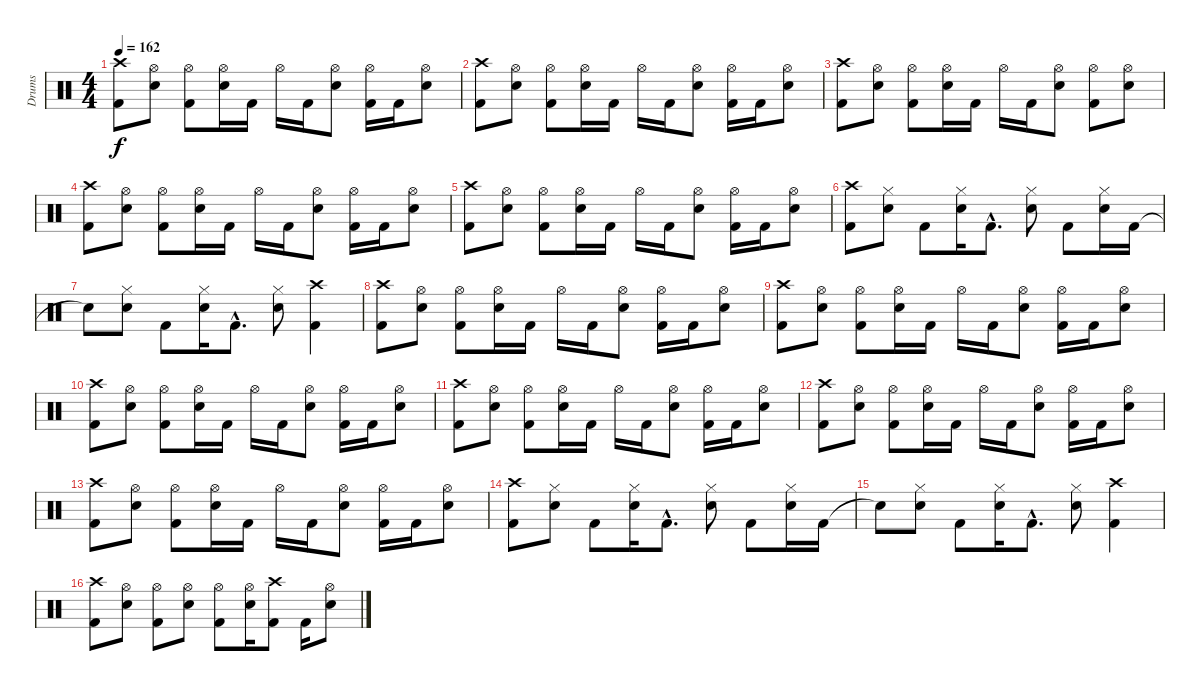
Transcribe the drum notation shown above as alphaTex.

\track ("Drums" "Drums") {instrument percussion}
\staff {score}
\articulation defaults
\ts (4 4)
\tempo 162
\clef neutral
\ks c
("Kick (hit) 2" "Crash high (hit)").8{dy f} ("Snare (hit) 2" "Hi-Hat (open)").8 ("Kick (hit) 2" "Hi-Hat (open)").8 ("Snare (hit) 2" "Hi-Hat (open)").16 "Kick (hit) 2".16 "Hi-Hat (open)".16 "Kick (hit) 2".16 ("Snare (hit) 2" "Hi-Hat (open)").8 ("Kick (hit) 2" "Hi-Hat (open)").16 "Kick (hit) 2".16 ("Snare (hit) 2" "Hi-Hat (open)").8 |
("Kick (hit) 2" "Crash high (hit)").8 ("Snare (hit) 2" "Hi-Hat (open)").8 ("Kick (hit) 2" "Hi-Hat (open)").8 ("Snare (hit) 2" "Hi-Hat (open)").16 "Kick (hit) 2".16 "Hi-Hat (open)".16 "Kick (hit) 2".16 ("Snare (hit) 2" "Hi-Hat (open)").8 ("Kick (hit) 2" "Hi-Hat (open)").16 "Kick (hit) 2".16 ("Snare (hit) 2" "Hi-Hat (open)").8 |
("Kick (hit) 2" "Crash high (hit)").8 ("Snare (hit) 2" "Hi-Hat (open)").8 ("Kick (hit) 2" "Hi-Hat (open)").8 ("Snare (hit) 2" "Hi-Hat (open)").16 "Kick (hit) 2".16 "Hi-Hat (open)".16 "Kick (hit) 2".16 ("Snare (hit) 2" "Hi-Hat (open)").8 ("Kick (hit) 2" "Hi-Hat (open)").8 ("Snare (hit) 2" "Hi-Hat (open)").8 |
("Kick (hit) 2" "Crash high (hit)").8 ("Snare (hit) 2" "Hi-Hat (open)").8 ("Kick (hit) 2" "Hi-Hat (open)").8 ("Snare (hit) 2" "Hi-Hat (open)").16 "Kick (hit) 2".16 "Hi-Hat (open)".16 "Kick (hit) 2".16 ("Snare (hit) 2" "Hi-Hat (open)").8 ("Kick (hit) 2" "Hi-Hat (open)").16 "Kick (hit) 2".16 ("Snare (hit) 2" "Hi-Hat (open)").8 |
("Kick (hit) 2" "Crash high (hit)").8 ("Snare (hit) 2" "Hi-Hat (open)").8 ("Kick (hit) 2" "Hi-Hat (open)").8 ("Snare (hit) 2" "Hi-Hat (open)").16 "Kick (hit) 2".16 "Hi-Hat (open)".16 "Kick (hit) 2".16 ("Snare (hit) 2" "Hi-Hat (open)").8 ("Kick (hit) 2" "Hi-Hat (open)").16 "Kick (hit) 2".16 ("Snare (hit) 2" "Hi-Hat (open)").8 |
("Kick (hit) 2" "Crash high (hit)").8 ("Snare (hit) 2" "Hi-Hat (closed)").8 "Kick (hit) 2".8 ("Snare (hit) 2" "Hi-Hat (closed)").16 "Kick (hit) 2"{hac}.8{d} ("Snare (hit) 2" "Hi-Hat (closed)").8 "Kick (hit) 2".8 ("Snare (hit) 2" "Hi-Hat (closed)").16 "Kick (hit) 2".16 |
"Snare (hit)"{t}.8 ("Snare (hit) 2" "Hi-Hat (closed)").8 "Kick (hit) 2".8 ("Snare (hit) 2" "Hi-Hat (closed)").16 "Kick (hit) 2"{hac}.8{d} ("Snare (hit) 2" "Hi-Hat (closed)").8 ("Kick (hit) 2" "Crash high (hit)").4 |
("Kick (hit) 2" "Crash high (hit)").8 ("Snare (hit) 2" "Hi-Hat (open)").8 ("Kick (hit) 2" "Hi-Hat (open)").8 ("Snare (hit) 2" "Hi-Hat (open)").16 "Kick (hit) 2".16 "Hi-Hat (open)".16 "Kick (hit) 2".16 ("Snare (hit) 2" "Hi-Hat (open)").8 ("Kick (hit) 2" "Hi-Hat (open)").16 "Kick (hit) 2".16 ("Snare (hit) 2" "Hi-Hat (open)").8 |
("Kick (hit) 2" "Crash high (hit)").8 ("Snare (hit) 2" "Hi-Hat (open)").8 ("Kick (hit) 2" "Hi-Hat (open)").8 ("Snare (hit) 2" "Hi-Hat (open)").16 "Kick (hit) 2".16 "Hi-Hat (open)".16 "Kick (hit) 2".16 ("Snare (hit) 2" "Hi-Hat (open)").8 ("Kick (hit) 2" "Hi-Hat (open)").16 "Kick (hit) 2".16 ("Snare (hit) 2" "Hi-Hat (open)").8 |
("Kick (hit) 2" "Crash high (hit)").8 ("Snare (hit) 2" "Hi-Hat (open)").8 ("Kick (hit) 2" "Hi-Hat (open)").8 ("Snare (hit) 2" "Hi-Hat (open)").16 "Kick (hit) 2".16 "Hi-Hat (open)".16 "Kick (hit) 2".16 ("Snare (hit) 2" "Hi-Hat (open)").8 ("Kick (hit) 2" "Hi-Hat (open)").16 "Kick (hit) 2".16 ("Snare (hit) 2" "Hi-Hat (open)").8 |
("Kick (hit) 2" "Crash high (hit)").8 ("Snare (hit) 2" "Hi-Hat (open)").8 ("Kick (hit) 2" "Hi-Hat (open)").8 ("Snare (hit) 2" "Hi-Hat (open)").16 "Kick (hit) 2".16 "Hi-Hat (open)".16 "Kick (hit) 2".16 ("Snare (hit) 2" "Hi-Hat (open)").8 ("Kick (hit) 2" "Hi-Hat (open)").16 "Kick (hit) 2".16 ("Snare (hit) 2" "Hi-Hat (open)").8 |
("Kick (hit) 2" "Crash high (hit)").8 ("Snare (hit) 2" "Hi-Hat (open)").8 ("Kick (hit) 2" "Hi-Hat (open)").8 ("Snare (hit) 2" "Hi-Hat (open)").16 "Kick (hit) 2".16 "Hi-Hat (open)".16 "Kick (hit) 2".16 ("Snare (hit) 2" "Hi-Hat (open)").8 ("Kick (hit) 2" "Hi-Hat (open)").16 "Kick (hit) 2".16 ("Snare (hit) 2" "Hi-Hat (open)").8 |
("Kick (hit) 2" "Crash high (hit)").8 ("Snare (hit) 2" "Hi-Hat (open)").8 ("Kick (hit) 2" "Hi-Hat (open)").8 ("Snare (hit) 2" "Hi-Hat (open)").16 "Kick (hit) 2".16 "Hi-Hat (open)".16 "Kick (hit) 2".16 ("Snare (hit) 2" "Hi-Hat (open)").8 ("Kick (hit) 2" "Hi-Hat (open)").16 "Kick (hit) 2".16 ("Snare (hit) 2" "Hi-Hat (open)").8 |
("Kick (hit) 2" "Crash high (hit)").8 ("Snare (hit) 2" "Hi-Hat (closed)").8 "Kick (hit) 2".8 ("Snare (hit) 2" "Hi-Hat (closed)").16 "Kick (hit) 2"{hac}.8{d} ("Snare (hit) 2" "Hi-Hat (closed)").8 "Kick (hit) 2".8 ("Snare (hit) 2" "Hi-Hat (closed)").16 "Kick (hit) 2".16 |
"Snare (hit)"{t}.8 ("Snare (hit) 2" "Hi-Hat (closed)").8 "Kick (hit) 2".8 ("Snare (hit) 2" "Hi-Hat (closed)").16 "Kick (hit) 2"{hac}.8{d} ("Snare (hit) 2" "Hi-Hat (closed)").8 ("Kick (hit) 2" "Crash high (hit)").4 |
("Kick (hit) 2" "Crash high (hit)").8 ("Snare (hit) 2" "Hi-Hat (open)").8 ("Kick (hit) 2" "Hi-Hat (open)").8 ("Snare (hit) 2" "Hi-Hat (open)").8 ("Kick (hit) 2" "Hi-Hat (open)").8 ("Snare (hit) 2" "Hi-Hat (open)").16 ("Kick (hit) 2" "Crash high (hit)").8 "Kick (hit) 2".16 ("Snare (hit) 2" "Hi-Hat (open)").8
